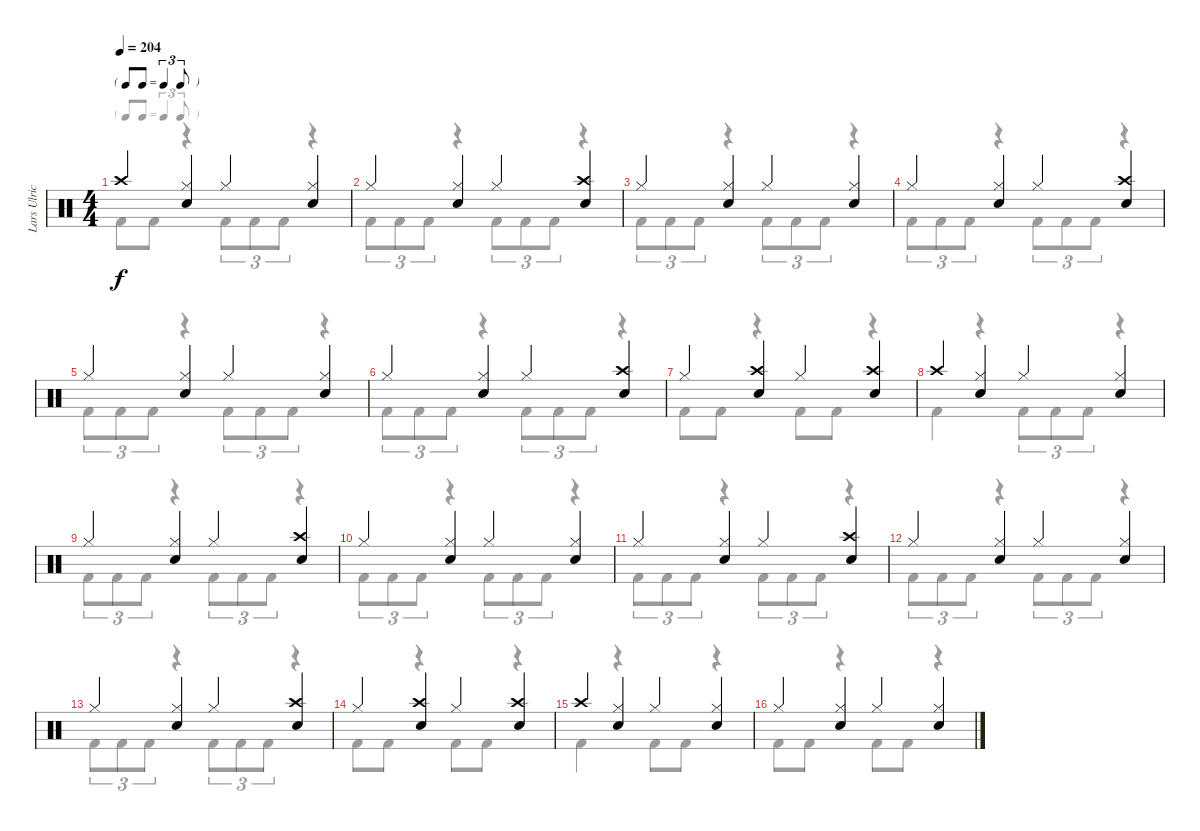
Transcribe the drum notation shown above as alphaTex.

\track ("Lars Ulrich" "Lars Ulric") {instrument percussion}
\staff {score}
\articulation defaults
\voice
\ts (4 4)
\tf triplet8th
\tempo 204
\clef neutral
\ks c "Crash high (hit)".4{dy f}
("Hi-Hat (closed)" "Snare (hit) 2").4 "Hi-Hat (closed)".4 ("Hi-Hat (closed)" "Snare (hit) 2").4 |
"Hi-Hat (closed)".4 ("Hi-Hat (closed)" "Snare (hit) 2").4 "Hi-Hat (closed)".4 ("Crash high (hit)" "Snare (hit) 2").4 |
"Hi-Hat (closed)".4 ("Hi-Hat (closed)" "Snare (hit) 2").4 "Hi-Hat (closed)".4 ("Hi-Hat (closed)" "Snare (hit) 2").4 |
"Hi-Hat (closed)".4 ("Hi-Hat (closed)" "Snare (hit) 2").4 "Hi-Hat (closed)".4 ("Crash high (hit)" "Snare (hit) 2").4 |
"Hi-Hat (closed)".4 ("Hi-Hat (closed)" "Snare (hit) 2").4 "Hi-Hat (closed)".4 ("Hi-Hat (closed)" "Snare (hit) 2").4 |
"Hi-Hat (closed)".4 ("Hi-Hat (closed)" "Snare (hit) 2").4 "Hi-Hat (closed)".4 ("Crash high (hit)" "Snare (hit) 2").4 |
"Hi-Hat (closed)".4 ("Crash high (hit)" "Snare (hit) 2").4 "Hi-Hat (closed)".4 ("Crash high (hit)" "Snare (hit) 2").4 |
"Crash high (hit)".4 ("Hi-Hat (closed)" "Snare (hit) 2").4 "Hi-Hat (closed)".4 ("Hi-Hat (closed)" "Snare (hit) 2").4 |
"Hi-Hat (closed)".4 ("Hi-Hat (closed)" "Snare (hit) 2").4 "Hi-Hat (closed)".4 ("Crash high (hit)" "Snare (hit) 2").4 |
"Hi-Hat (closed)".4 ("Hi-Hat (closed)" "Snare (hit) 2").4 "Hi-Hat (closed)".4 ("Hi-Hat (closed)" "Snare (hit) 2").4 |
"Hi-Hat (closed)".4 ("Hi-Hat (closed)" "Snare (hit) 2").4 "Hi-Hat (closed)".4 ("Crash high (hit)" "Snare (hit) 2").4 |
"Hi-Hat (closed)".4 ("Hi-Hat (closed)" "Snare (hit) 2").4 "Hi-Hat (closed)".4 ("Hi-Hat (closed)" "Snare (hit) 2").4 |
"Hi-Hat (closed)".4 ("Hi-Hat (closed)" "Snare (hit) 2").4 "Hi-Hat (closed)".4 ("Crash high (hit)" "Snare (hit) 2").4 |
"Hi-Hat (closed)".4 ("Crash high (hit)" "Snare (hit) 2").4 "Hi-Hat (closed)".4 ("Crash high (hit)" "Snare (hit) 2").4 |
"Crash high (hit)".4 ("Hi-Hat (closed)" "Snare (hit) 2").4 "Hi-Hat (closed)".4 ("Hi-Hat (closed)" "Snare (hit) 2").4 |
"Hi-Hat (closed)".4 ("Hi-Hat (closed)" "Snare (hit) 2").4 "Hi-Hat (closed)".4 ("Hi-Hat (closed)" "Snare (hit) 2").4
\voice
\clef neutral
\ottava regular
\simile none
\ks c "Kick (hit) 2".8{dy f} "Kick (hit) 2".8
r.4 "Kick (hit) 2".8{tu (3 2)} "Kick (hit) 2".8{tu (3 2)} "Kick (hit) 2".8{tu (3 2)} r.4 |
"Kick (hit) 2".8{tu (3 2)} "Kick (hit) 2".8{tu (3 2)} "Kick (hit) 2".8{tu (3 2)} r.4 "Kick (hit) 2".8{tu (3 2)} "Kick (hit) 2".8{tu (3 2)} "Kick (hit) 2".8{tu (3 2)} r.4 |
"Kick (hit) 2".8{tu (3 2)} "Kick (hit) 2".8{tu (3 2)} "Kick (hit) 2".8{tu (3 2)} r.4 "Kick (hit) 2".8{tu (3 2)} "Kick (hit) 2".8{tu (3 2)} "Kick (hit) 2".8{tu (3 2)} r.4 |
"Kick (hit) 2".8{tu (3 2)} "Kick (hit) 2".8{tu (3 2)} "Kick (hit) 2".8{tu (3 2)} r.4 "Kick (hit) 2".8{tu (3 2)} "Kick (hit) 2".8{tu (3 2)} "Kick (hit) 2".8{tu (3 2)} r.4 |
"Kick (hit) 2".8{tu (3 2)} "Kick (hit) 2".8{tu (3 2)} "Kick (hit) 2".8{tu (3 2)} r.4 "Kick (hit) 2".8{tu (3 2)} "Kick (hit) 2".8{tu (3 2)} "Kick (hit) 2".8{tu (3 2)} r.4 |
"Kick (hit) 2".8{tu (3 2)} "Kick (hit) 2".8{tu (3 2)} "Kick (hit) 2".8{tu (3 2)} r.4 "Kick (hit) 2".8{tu (3 2)} "Kick (hit) 2".8{tu (3 2)} "Kick (hit) 2".8{tu (3 2)} r.4 |
"Kick (hit) 2".8 "Kick (hit) 2".8 r.4 "Kick (hit) 2".8 "Kick (hit) 2".8 r.4 |
"Kick (hit) 2".4 r.4 "Kick (hit) 2".8{tu (3 2)} "Kick (hit) 2".8{tu (3 2)} "Kick (hit) 2".8{tu (3 2)} r.4 |
"Kick (hit) 2".8{tu (3 2)} "Kick (hit) 2".8{tu (3 2)} "Kick (hit) 2".8{tu (3 2)} r.4 "Kick (hit) 2".8{tu (3 2)} "Kick (hit) 2".8{tu (3 2)} "Kick (hit) 2".8{tu (3 2)} r.4 |
"Kick (hit) 2".8{tu (3 2)} "Kick (hit) 2".8{tu (3 2)} "Kick (hit) 2".8{tu (3 2)} r.4 "Kick (hit) 2".8{tu (3 2)} "Kick (hit) 2".8{tu (3 2)} "Kick (hit) 2".8{tu (3 2)} r.4 |
"Kick (hit) 2".8{tu (3 2)} "Kick (hit) 2".8{tu (3 2)} "Kick (hit) 2".8{tu (3 2)} r.4 "Kick (hit) 2".8{tu (3 2)} "Kick (hit) 2".8{tu (3 2)} "Kick (hit) 2".8{tu (3 2)} r.4 |
"Kick (hit) 2".8{tu (3 2)} "Kick (hit) 2".8{tu (3 2)} "Kick (hit) 2".8{tu (3 2)} r.4 "Kick (hit) 2".8{tu (3 2)} "Kick (hit) 2".8{tu (3 2)} "Kick (hit) 2".8{tu (3 2)} r.4 |
"Kick (hit) 2".8{tu (3 2)} "Kick (hit) 2".8{tu (3 2)} "Kick (hit) 2".8{tu (3 2)} r.4 "Kick (hit) 2".8{tu (3 2)} "Kick (hit) 2".8{tu (3 2)} "Kick (hit) 2".8{tu (3 2)} r.4 |
"Kick (hit) 2".8 "Kick (hit) 2".8 r.4 "Kick (hit) 2".8 "Kick (hit) 2".8 r.4 |
"Kick (hit) 2".4 r.4 "Kick (hit) 2".8 "Kick (hit) 2".8 r.4 |
"Kick (hit) 2".8 "Kick (hit) 2".8 r.4 "Kick (hit) 2".8 "Kick (hit) 2".8 r.4
